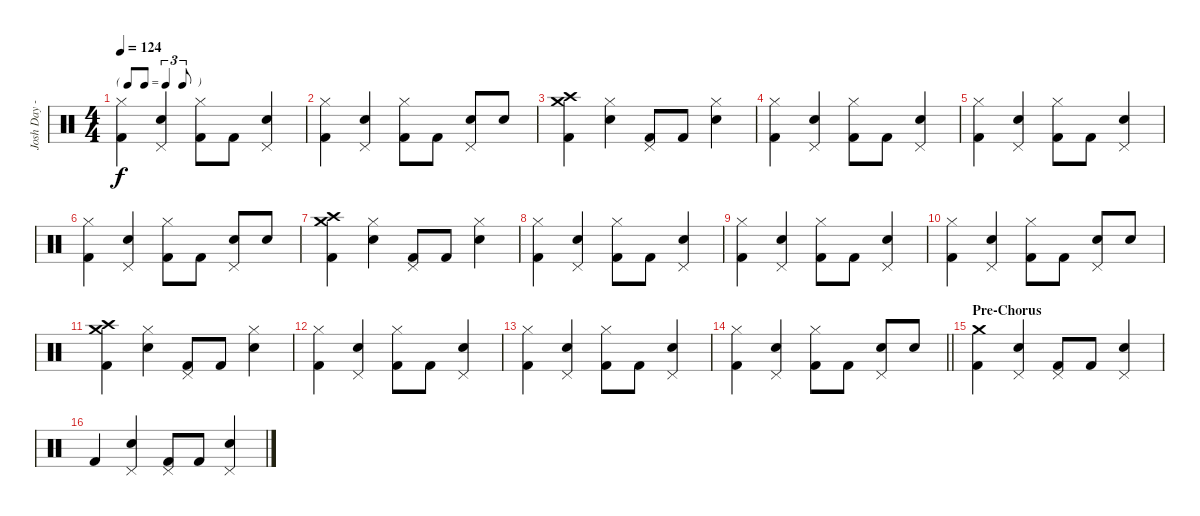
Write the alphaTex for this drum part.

\track ("Josh Day - Drums/Percussion" "Josh Day -") {instrument percussion}
\staff {score}
\articulation defaults
\ts (4 4)
\tf triplet8th
\tempo 124
\clef neutral
\ks c
("Hi-Hat (closed)" "Kick (hit) 2").4{dy f} ("Snare (hit) 2" "Pedal Hi-Hat (hit)").4 ("Hi-Hat (closed)" "Kick (hit) 2").8 "Kick (hit) 2".8 ("Snare (hit) 2" "Pedal Hi-Hat (hit)").4 |
("Hi-Hat (closed)" "Kick (hit) 2").4 ("Snare (hit) 2" "Pedal Hi-Hat (hit)").4 ("Hi-Hat (closed)" "Kick (hit) 2").8 "Kick (hit) 2".8 ("Snare (hit) 2" "Pedal Hi-Hat (hit)").8 "Snare (hit) 2".8 |
("Crash medium (hit)" "Crash high (hit)" "Kick (hit) 2").4 ("Snare (hit) 2" "Hi-Hat (closed)").4 ("Pedal Hi-Hat (hit)" "Kick (hit) 2").8 "Kick (hit) 2".8 ("Snare (hit) 2" "Hi-Hat (closed)").4 |
("Hi-Hat (closed)" "Kick (hit) 2").4 ("Snare (hit) 2" "Pedal Hi-Hat (hit)").4 ("Hi-Hat (closed)" "Kick (hit) 2").8 "Kick (hit) 2".8 ("Snare (hit) 2" "Pedal Hi-Hat (hit)").4 |
("Hi-Hat (closed)" "Kick (hit) 2").4 ("Snare (hit) 2" "Pedal Hi-Hat (hit)").4 ("Hi-Hat (closed)" "Kick (hit) 2").8 "Kick (hit) 2".8 ("Snare (hit) 2" "Pedal Hi-Hat (hit)").4 |
("Hi-Hat (closed)" "Kick (hit) 2").4 ("Snare (hit) 2" "Pedal Hi-Hat (hit)").4 ("Hi-Hat (closed)" "Kick (hit) 2").8 "Kick (hit) 2".8 ("Snare (hit) 2" "Pedal Hi-Hat (hit)").8 "Snare (hit) 2".8 |
("Crash medium (hit)" "Crash high (hit)" "Kick (hit) 2").4 ("Snare (hit) 2" "Hi-Hat (closed)").4 ("Pedal Hi-Hat (hit)" "Kick (hit) 2").8 "Kick (hit) 2".8 ("Snare (hit) 2" "Hi-Hat (closed)").4 |
("Hi-Hat (closed)" "Kick (hit) 2").4 ("Snare (hit) 2" "Pedal Hi-Hat (hit)").4 ("Hi-Hat (closed)" "Kick (hit) 2").8 "Kick (hit) 2".8 ("Snare (hit) 2" "Pedal Hi-Hat (hit)").4 |
("Hi-Hat (closed)" "Kick (hit) 2").4 ("Snare (hit) 2" "Pedal Hi-Hat (hit)").4 ("Hi-Hat (closed)" "Kick (hit) 2").8 "Kick (hit) 2".8 ("Snare (hit) 2" "Pedal Hi-Hat (hit)").4 |
("Hi-Hat (closed)" "Kick (hit) 2").4 ("Snare (hit) 2" "Pedal Hi-Hat (hit)").4 ("Hi-Hat (closed)" "Kick (hit) 2").8 "Kick (hit) 2".8 ("Snare (hit) 2" "Pedal Hi-Hat (hit)").8 "Snare (hit) 2".8 |
("Crash medium (hit)" "Crash high (hit)" "Kick (hit) 2").4 ("Snare (hit) 2" "Hi-Hat (closed)").4 ("Pedal Hi-Hat (hit)" "Kick (hit) 2").8 "Kick (hit) 2".8 ("Snare (hit) 2" "Hi-Hat (closed)").4 |
("Hi-Hat (closed)" "Kick (hit) 2").4 ("Snare (hit) 2" "Pedal Hi-Hat (hit)").4 ("Hi-Hat (closed)" "Kick (hit) 2").8 "Kick (hit) 2".8 ("Snare (hit) 2" "Pedal Hi-Hat (hit)").4 |
("Hi-Hat (closed)" "Kick (hit) 2").4 ("Snare (hit) 2" "Pedal Hi-Hat (hit)").4 ("Hi-Hat (closed)" "Kick (hit) 2").8 "Kick (hit) 2".8 ("Snare (hit) 2" "Pedal Hi-Hat (hit)").4 |
\barLineRight lightlight
("Hi-Hat (closed)" "Kick (hit) 2").4 ("Snare (hit) 2" "Pedal Hi-Hat (hit)").4 ("Hi-Hat (closed)" "Kick (hit) 2").8 "Kick (hit) 2".8 ("Snare (hit) 2" "Pedal Hi-Hat (hit)").8 "Snare (hit) 2".8 |
\section ("" "Pre-Chorus")
("Crash medium (hit)" "Kick (hit) 2").4 ("Snare (hit) 2" "Pedal Hi-Hat (hit)").4 ("Pedal Hi-Hat (hit)" "Kick (hit) 2").8 "Kick (hit) 2".8 ("Snare (hit) 2" "Pedal Hi-Hat (hit)").4 |
"Kick (hit) 2".4 ("Snare (hit) 2" "Pedal Hi-Hat (hit)").4 ("Pedal Hi-Hat (hit)" "Kick (hit) 2").8 "Kick (hit) 2".8 ("Snare (hit) 2" "Pedal Hi-Hat (hit)").4
